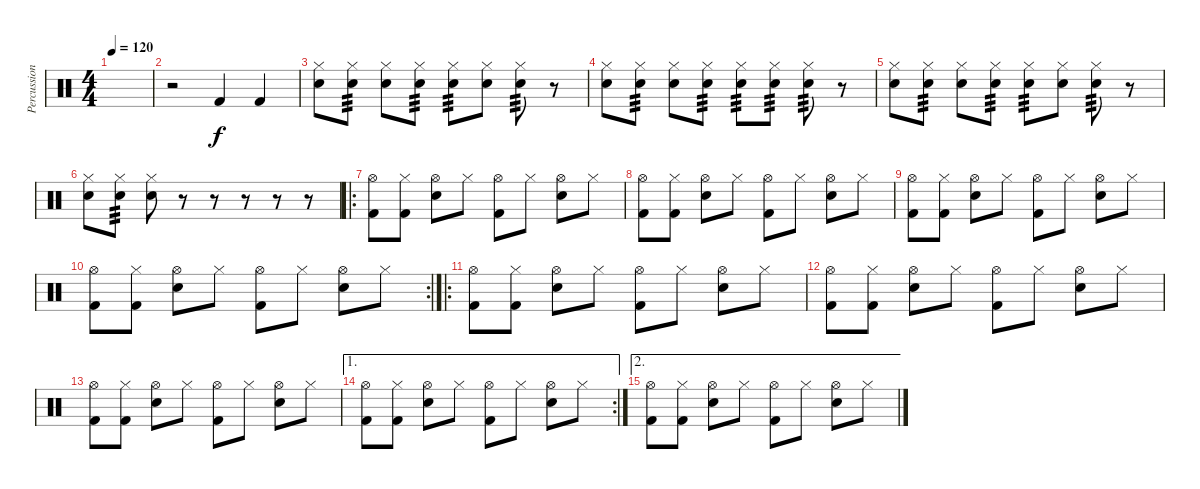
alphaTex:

\track ("Percussioni" "Percussion") {instrument percussion}
\staff {score}
\articulation defaults
\ts (4 4)
\tempo 120
\clef neutral
\ks c
|
r.2 "Kick (hit) 2".4 "Kick (hit) 2".4 |
("Hi-Hat (closed)" "Snare (hit) 2").8 ("Hi-Hat (closed)" "Snare (hit) 2").8{tp 3} ("Hi-Hat (closed)" "Snare (hit) 2").8 ("Hi-Hat (closed)" "Snare (hit) 2").8{tp 3} ("Hi-Hat (closed)" "Snare (hit) 2").8{tp 3} ("Hi-Hat (closed)" "Snare (hit) 2").8 ("Hi-Hat (closed)" "Snare (hit) 2").8{tp 3} r.8 |
("Hi-Hat (closed)" "Snare (hit) 2").8 ("Hi-Hat (closed)" "Snare (hit) 2").8{tp 3} ("Hi-Hat (closed)" "Snare (hit) 2").8 ("Hi-Hat (closed)" "Snare (hit) 2").8{tp 3} ("Hi-Hat (closed)" "Snare (hit) 2").8{tp 3} ("Hi-Hat (closed)" "Snare (hit) 2").8{tp 3} ("Hi-Hat (closed)" "Snare (hit) 2").8{tp 3} r.8 |
("Hi-Hat (closed)" "Snare (hit) 2").8 ("Hi-Hat (closed)" "Snare (hit) 2").8{tp 3} ("Hi-Hat (closed)" "Snare (hit) 2").8 ("Hi-Hat (closed)" "Snare (hit) 2").8{tp 3} ("Hi-Hat (closed)" "Snare (hit) 2").8{tp 3} ("Hi-Hat (closed)" "Snare (hit) 2").8 ("Hi-Hat (closed)" "Snare (hit) 2").8{tp 3} r.8 |
("Hi-Hat (closed)" "Snare (hit) 2").8 ("Hi-Hat (closed)" "Snare (hit) 2").8{tp 3} ("Hi-Hat (closed)" "Snare (hit) 2").8 r.8 r.8 r.8 r.8 r.8 |
\ro
("Kick (hit) 2" "Hi-Hat (open)").8 ("Kick (hit) 2" "Hi-Hat (closed)").8 ("Electric Snare (hit)" "Hi-Hat (open)").8 "Hi-Hat (closed)".8 ("Kick (hit) 2" "Hi-Hat (open)").8 "Hi-Hat (closed)".8 ("Electric Snare (hit)" "Hi-Hat (open)").8 "Hi-Hat (closed)".8 |
("Kick (hit) 2" "Hi-Hat (open)").8 ("Kick (hit) 2" "Hi-Hat (closed)").8 ("Electric Snare (hit)" "Hi-Hat (open)").8 "Hi-Hat (closed)".8 ("Kick (hit) 2" "Hi-Hat (open)").8 "Hi-Hat (closed)".8 ("Electric Snare (hit)" "Hi-Hat (open)").8 "Hi-Hat (closed)".8 |
("Kick (hit) 2" "Hi-Hat (open)").8 ("Kick (hit) 2" "Hi-Hat (closed)").8 ("Electric Snare (hit)" "Hi-Hat (open)").8 "Hi-Hat (closed)".8 ("Kick (hit) 2" "Hi-Hat (open)").8 "Hi-Hat (closed)".8 ("Electric Snare (hit)" "Hi-Hat (open)").8 "Hi-Hat (closed)".8 |
\rc 2
("Kick (hit) 2" "Hi-Hat (open)").8 ("Kick (hit) 2" "Hi-Hat (closed)").8 ("Electric Snare (hit)" "Hi-Hat (open)").8 "Hi-Hat (closed)".8 ("Kick (hit) 2" "Hi-Hat (open)").8 "Hi-Hat (closed)".8 ("Electric Snare (hit)" "Hi-Hat (open)").8 "Hi-Hat (closed)".8 |
\ro
("Kick (hit) 2" "Hi-Hat (open)").8 ("Kick (hit) 2" "Hi-Hat (closed)").8 ("Electric Snare (hit)" "Hi-Hat (open)").8 "Hi-Hat (closed)".8 ("Kick (hit) 2" "Hi-Hat (open)").8 "Hi-Hat (closed)".8 ("Electric Snare (hit)" "Hi-Hat (open)").8 "Hi-Hat (closed)".8 |
("Kick (hit) 2" "Hi-Hat (open)").8 ("Kick (hit) 2" "Hi-Hat (closed)").8 ("Electric Snare (hit)" "Hi-Hat (open)").8 "Hi-Hat (closed)".8 ("Kick (hit) 2" "Hi-Hat (open)").8 "Hi-Hat (closed)".8 ("Electric Snare (hit)" "Hi-Hat (open)").8 "Hi-Hat (closed)".8 |
("Kick (hit) 2" "Hi-Hat (open)").8 ("Kick (hit) 2" "Hi-Hat (closed)").8 ("Electric Snare (hit)" "Hi-Hat (open)").8 "Hi-Hat (closed)".8 ("Kick (hit) 2" "Hi-Hat (open)").8 "Hi-Hat (closed)".8 ("Electric Snare (hit)" "Hi-Hat (open)").8 "Hi-Hat (closed)".8 |
\ae 1
\rc 2
("Kick (hit) 2" "Hi-Hat (open)").8 ("Kick (hit) 2" "Hi-Hat (closed)").8 ("Electric Snare (hit)" "Hi-Hat (open)").8 "Hi-Hat (closed)".8 ("Kick (hit) 2" "Hi-Hat (open)").8 "Hi-Hat (closed)".8 ("Electric Snare (hit)" "Hi-Hat (open)").8 "Hi-Hat (closed)".8 |
\ae 2
("Kick (hit) 2" "Hi-Hat (open)").8 ("Kick (hit) 2" "Hi-Hat (closed)").8 ("Electric Snare (hit)" "Hi-Hat (open)").8 "Hi-Hat (closed)".8 ("Kick (hit) 2" "Hi-Hat (open)").8 "Hi-Hat (closed)".8 ("Electric Snare (hit)" "Hi-Hat (open)").8 "Hi-Hat (closed)".8
